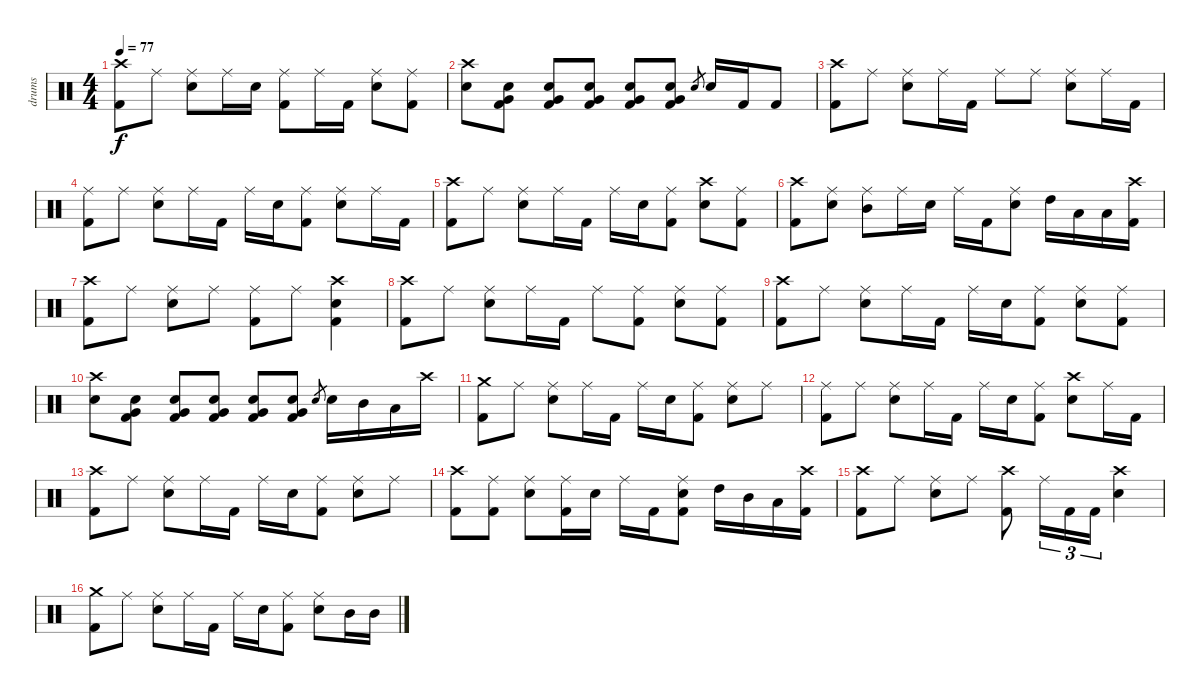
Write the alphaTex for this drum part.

\track ("drums" "drums") {instrument percussion}
\staff {score}
\articulation defaults
\ts (4 4)
\tempo 77
\clef neutral
\ks c
("Crash high (hit)" "Kick (hit) 2").8{dy f} "Ride (middle)".8 ("Ride (middle)" "Electric Snare (hit)").8 "Ride (middle)".16 "Electric Snare (hit)".16 ("Ride (middle)" "Kick (hit) 2").8 "Ride (middle)".16 "Kick (hit) 2".16 ("Ride (middle)" "Electric Snare (hit)").8 ("Ride (middle)" "Kick (hit) 2").8 |
("Crash high (hit)" "Electric Snare (hit)").8 ("Electric Snare (hit)" "Very Low Tom (hit)" "Kick (hit) 2").8 ("Electric Snare (hit)" "Very Low Tom (hit)" "Kick (hit) 2").8 ("Electric Snare (hit)" "Very Low Tom (hit)" "Kick (hit) 2").8 ("Electric Snare (hit)" "Very Low Tom (hit)" "Kick (hit) 2").8 ("Electric Snare (hit)" "Very Low Tom (hit)" "Kick (hit) 2").8 "Electric Snare (hit)".8{gr} "Electric Snare (hit)".16 "Kick (hit) 2".16 "Kick (hit) 2".8 |
("Crash high (hit)" "Kick (hit) 2").8 "Ride (middle)".8 ("Ride (middle)" "Electric Snare (hit)").8 "Ride (middle)".16 "Kick (hit) 2".16 "Ride (middle)".8 "Ride (middle)".8 ("Ride (middle)" "Electric Snare (hit)").8 "Ride (middle)".16 "Kick (hit) 2".16 |
("Ride (middle)" "Kick (hit) 2").8 "Ride (middle)".8 ("Ride (middle)" "Electric Snare (hit)").8 "Ride (middle)".16 "Kick (hit) 2".16 "Ride (middle)".16 "Electric Snare (hit)".16 ("Ride (middle)" "Kick (hit) 2").8 ("Ride (middle)" "Electric Snare (hit)").8 "Ride (middle)".16 "Kick (hit) 2".16 |
("Crash high (hit)" "Kick (hit) 2").8 "Ride (middle)".8 ("Ride (middle)" "Electric Snare (hit)").8 "Ride (middle)".16 "Kick (hit) 2".16 "Ride (middle)".16 "Electric Snare (hit)".16 ("Ride (middle)" "Kick (hit) 2").8 ("Crash high (hit)" "Electric Snare (hit)").8 ("Ride (middle)" "Kick (hit) 2").8 |
("Crash high (hit)" "Kick (hit) 2").8 ("Ride (middle)" "Electric Snare (hit)").8 ("Ride (middle)" "Mid Tom (hit)").8 "Ride (middle)".16 "Electric Snare (hit)".16 "Ride (middle)".16 "Kick (hit) 2".16 ("Ride (middle)" "Electric Snare (hit)").8 "High Tom (hit)".16 "Low Tom (hit)".16 "Low Tom (hit)".16 ("Crash high (hit)" "Kick (hit) 2").16 |
("Crash high (hit)" "Kick (hit) 2").8 "Ride (middle)".8 ("Ride (middle)" "Electric Snare (hit)").8 "Ride (middle)".8 ("Ride (middle)" "Kick (hit) 2").8 "Ride (middle)".8 ("Crash high (hit)" "Electric Snare (hit)" "Kick (hit) 2").4 |
("Crash high (hit)" "Kick (hit) 2").8 "Ride (middle)".8 ("Ride (middle)" "Electric Snare (hit)").8 "Ride (middle)".16 "Kick (hit) 2".16 "Ride (middle)".8 ("Ride (middle)" "Kick (hit) 2").8 ("Ride (middle)" "Electric Snare (hit)").8 ("Ride (middle)" "Kick (hit) 2").8 |
("Crash high (hit)" "Kick (hit) 2").8 "Ride (middle)".8 ("Ride (middle)" "Electric Snare (hit)").8 "Ride (middle)".16 "Kick (hit) 2".16 "Ride (middle)".16 "Electric Snare (hit)".16 ("Ride (middle)" "Kick (hit) 2").8 ("Ride (middle)" "Electric Snare (hit)").8 ("Ride (middle)" "Kick (hit) 2").8 |
("Crash high (hit)" "Electric Snare (hit)").8 ("Electric Snare (hit)" "Very Low Tom (hit)" "Kick (hit) 2").8 ("Electric Snare (hit)" "Very Low Tom (hit)" "Kick (hit) 2").8 ("Electric Snare (hit)" "Very Low Tom (hit)" "Kick (hit) 2").8 ("Electric Snare (hit)" "Very Low Tom (hit)" "Kick (hit) 2").8 ("Electric Snare (hit)" "Very Low Tom (hit)" "Kick (hit) 2").8 "Electric Snare (hit)".8{gr} "Electric Snare (hit)".16 "Mid Tom (hit)".16 "Low Tom (hit)".16 "Crash high (hit)".16 |
("Crash medium (hit)" "Kick (hit) 2").8 "Ride (middle)".8 ("Ride (middle)" "Electric Snare (hit)").8 "Ride (middle)".16 "Kick (hit) 2".16 "Ride (middle)".16 "Electric Snare (hit)".16 ("Ride (middle)" "Kick (hit) 2").8 ("Ride (middle)" "Electric Snare (hit)").8 "Ride (middle)".8 |
("Ride (middle)" "Kick (hit) 2").8 "Ride (middle)".8 ("Ride (middle)" "Electric Snare (hit)").8 "Ride (middle)".16 "Kick (hit) 2".16 "Ride (middle)".16 "Electric Snare (hit)".16 ("Ride (middle)" "Kick (hit) 2").8 ("Crash high (hit)" "Electric Snare (hit)").8 "Ride (middle)".16 "Kick (hit) 2".16 |
("Crash high (hit)" "Kick (hit) 2").8 "Ride (middle)".8 ("Ride (middle)" "Electric Snare (hit)").8 "Ride (middle)".16 "Kick (hit) 2".16 "Ride (middle)".16 "Electric Snare (hit)".16 ("Ride (middle)" "Kick (hit) 2").8 ("Ride (middle)" "Electric Snare (hit)").8 "Ride (middle)".8 |
("Crash high (hit)" "Kick (hit) 2").8 ("Ride (middle)" "Kick (hit) 2").8 ("Ride (middle)" "Electric Snare (hit)").8 ("Ride (middle)" "Kick (hit) 2").16 "Electric Snare (hit)".16 "Ride (middle)".16 "Kick (hit) 2".16 ("Ride (middle)" "Electric Snare (hit)" "Kick (hit) 2").8 "High Tom (hit)".16 "Mid Tom (hit)".16 "Low Tom (hit)".16 ("Crash high (hit)" "Kick (hit) 2").16 |
("Crash high (hit)" "Kick (hit) 2").8 "Ride (middle)".8 ("Ride (middle)" "Electric Snare (hit)").8 "Ride (middle)".8 ("Crash high (hit)" "Kick (hit) 2").8 "Ride (middle)".16{tu (3 2)} "Kick (hit) 2".16{tu (3 2)} "Kick (hit) 2".16{tu (3 2)} ("Crash high (hit)" "Electric Snare (hit)").4 |
("Crash medium (hit)" "Kick (hit) 2").8 "Ride (middle)".8 ("Ride (middle)" "Electric Snare (hit)").8 "Ride (middle)".16 "Kick (hit) 2".16 "Ride (middle)".16 "Electric Snare (hit)".16 ("Ride (middle)" "Kick (hit) 2").8 ("Ride (middle)" "Electric Snare (hit)").8 "Mid Tom (hit)".16 "Mid Tom (hit)".16
